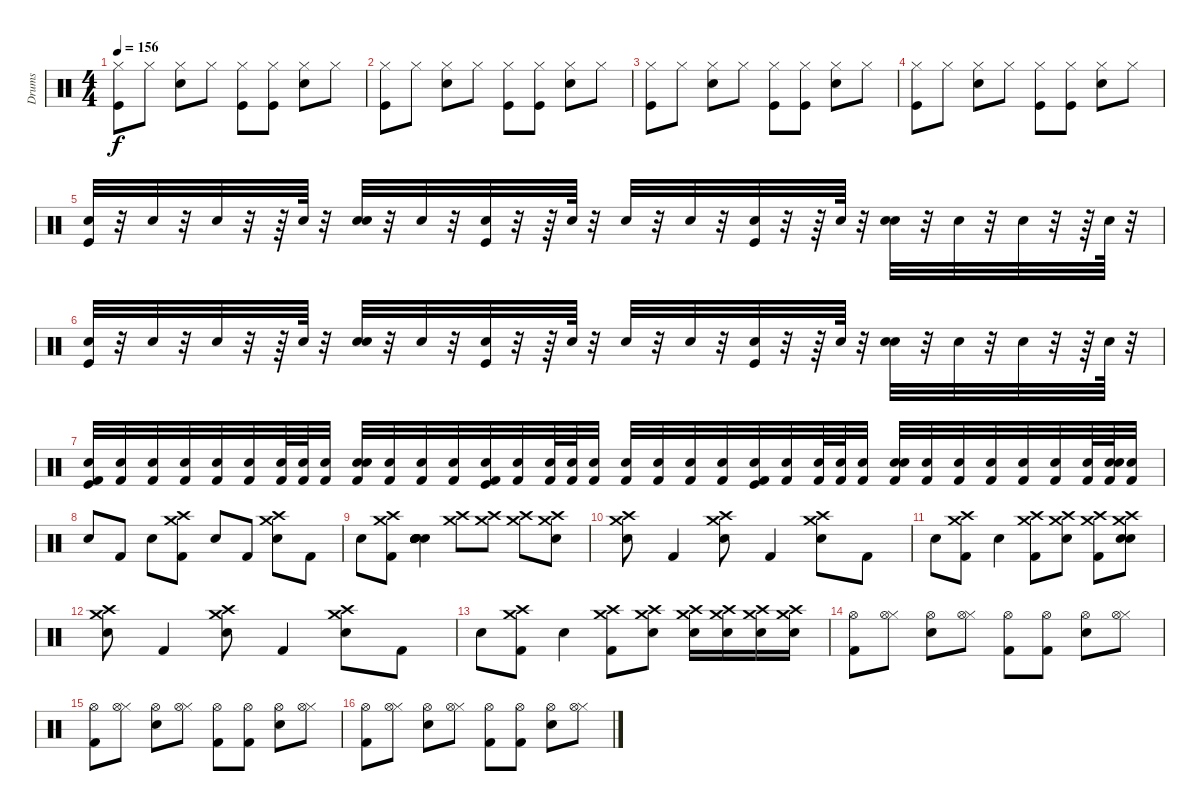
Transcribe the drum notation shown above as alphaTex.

\track ("Drums" "Drums") {instrument percussion}
\staff {score}
\articulation defaults
\ts (4 4)
\tempo 156
\clef neutral
\ks c
("Kick (hit)" "Hi-Hat (closed)").8{dy f} "Hi-Hat (closed)".8 ("Snare (hit) 2" "Hi-Hat (closed)").8 "Hi-Hat (closed)".8 ("Kick (hit)" "Hi-Hat (closed)").8 ("Kick (hit)" "Hi-Hat (closed)").8 ("Snare (hit) 2" "Hi-Hat (closed)").8 "Hi-Hat (closed)".8 |
("Kick (hit)" "Hi-Hat (closed)").8 "Hi-Hat (closed)".8 ("Snare (hit) 2" "Hi-Hat (closed)").8 "Hi-Hat (closed)".8 ("Kick (hit)" "Hi-Hat (closed)").8 ("Kick (hit)" "Hi-Hat (closed)").8 ("Snare (hit) 2" "Hi-Hat (closed)").8 "Hi-Hat (closed)".8 |
("Kick (hit)" "Hi-Hat (closed)").8 "Hi-Hat (closed)".8 ("Snare (hit) 2" "Hi-Hat (closed)").8 "Hi-Hat (closed)".8 ("Kick (hit)" "Hi-Hat (closed)").8 ("Kick (hit)" "Hi-Hat (closed)").8 ("Snare (hit) 2" "Hi-Hat (closed)").8 "Hi-Hat (closed)".8 |
("Kick (hit)" "Hi-Hat (closed)").8 "Hi-Hat (closed)".8 ("Snare (hit) 2" "Hi-Hat (closed)").8 "Hi-Hat (closed)".8 ("Kick (hit)" "Hi-Hat (closed)").8 ("Kick (hit)" "Hi-Hat (closed)").8 ("Snare (hit) 2" "Hi-Hat (closed)").8 "Hi-Hat (closed)".8 |
("Kick (hit)" "Electric Snare (hit)").32 r.32 "Electric Snare (hit)".32 r.32 "Electric Snare (hit)".32 r.32 r.64 "Electric Snare (hit)".64 r.32 ("Snare (hit) 2" "Electric Snare (hit)").32 r.32 "Electric Snare (hit)".32 r.32 ("Kick (hit)" "Electric Snare (hit)").32 r.32 r.64 "Electric Snare (hit)".64 r.32 "Electric Snare (hit)".32 r.32 "Electric Snare (hit)".32 r.32 ("Kick (hit)" "Electric Snare (hit)").32 r.32 r.64 "Electric Snare (hit)".64 r.32 ("Snare (hit) 2" "Electric Snare (hit)").32 r.32 "Electric Snare (hit)".32 r.32 "Electric Snare (hit)".32 r.32 r.64 "Electric Snare (hit)".64 r.32 |
("Kick (hit)" "Electric Snare (hit)").32 r.32 "Electric Snare (hit)".32 r.32 "Electric Snare (hit)".32 r.32 r.64 "Electric Snare (hit)".64 r.32 ("Snare (hit) 2" "Electric Snare (hit)").32 r.32 "Electric Snare (hit)".32 r.32 ("Kick (hit)" "Electric Snare (hit)").32 r.32 r.64 "Electric Snare (hit)".64 r.32 "Electric Snare (hit)".32 r.32 "Electric Snare (hit)".32 r.32 ("Kick (hit)" "Electric Snare (hit)").32 r.32 r.64 "Electric Snare (hit)".64 r.32 ("Snare (hit) 2" "Electric Snare (hit)").32 r.32 "Electric Snare (hit)".32 r.32 "Electric Snare (hit)".32 r.32 r.64 "Electric Snare (hit)".64 r.32 |
("Kick (hit)" "Electric Snare (hit)" "Kick (hit) 2").32 ("Electric Snare (hit)" "Kick (hit) 2").32 ("Electric Snare (hit)" "Kick (hit) 2").32 ("Electric Snare (hit)" "Kick (hit) 2").32 ("Electric Snare (hit)" "Kick (hit) 2").32 ("Electric Snare (hit)" "Kick (hit) 2").32 ("Electric Snare (hit)" "Kick (hit) 2").64 ("Electric Snare (hit)" "Kick (hit) 2").64 ("Electric Snare (hit)" "Kick (hit) 2").32 ("Snare (hit) 2" "Electric Snare (hit)" "Kick (hit) 2").32 ("Electric Snare (hit)" "Kick (hit) 2").32 ("Electric Snare (hit)" "Kick (hit) 2").32 ("Electric Snare (hit)" "Kick (hit) 2").32 ("Kick (hit)" "Electric Snare (hit)" "Kick (hit) 2").32 ("Electric Snare (hit)" "Kick (hit) 2").32 ("Electric Snare (hit)" "Kick (hit) 2").64 ("Electric Snare (hit)" "Kick (hit) 2").64 ("Electric Snare (hit)" "Kick (hit) 2").32 ("Electric Snare (hit)" "Kick (hit) 2").32 ("Electric Snare (hit)" "Kick (hit) 2").32 ("Electric Snare (hit)" "Kick (hit) 2").32 ("Electric Snare (hit)" "Kick (hit) 2").32 ("Kick (hit)" "Electric Snare (hit)" "Kick (hit) 2").32 ("Electric Snare (hit)" "Kick (hit) 2").32 ("Electric Snare (hit)" "Kick (hit) 2").64 ("Electric Snare (hit)" "Kick (hit) 2").64 ("Electric Snare (hit)" "Kick (hit) 2").32 ("Snare (hit) 2" "Electric Snare (hit)" "Kick (hit) 2").32 ("Electric Snare (hit)" "Kick (hit) 2").32 ("Electric Snare (hit)" "Kick (hit) 2").32 ("Electric Snare (hit)" "Kick (hit) 2").32 ("Electric Snare (hit)" "Kick (hit) 2").32 ("Electric Snare (hit)" "Kick (hit) 2").32 ("Electric Snare (hit)" "Kick (hit) 2").64 ("Electric Snare (hit)" "Electric Snare (hit)" "Kick (hit) 2").64 ("Electric Snare (hit)" "Kick (hit) 2").32 |
"Electric Snare (hit)".8 "Kick (hit) 2".8 "Electric Snare (hit)".8 ("Crash high (hit)" "Crash medium (hit)" "Kick (hit) 2").8 "Electric Snare (hit)".8 "Kick (hit) 2".8 ("Crash high (hit)" "Crash medium (hit)" "Electric Snare (hit)").8 "Kick (hit) 2".8 |
"Electric Snare (hit)".8 ("Crash high (hit)" "Crash medium (hit)" "Kick (hit) 2").8 ("Electric Snare (hit)" "Electric Snare (hit)" "Electric Snare (hit)" "Electric Snare (hit)" "Electric Snare (hit)" "Electric Snare (hit)").4 ("Crash high (hit)" "Crash medium (hit)").8 ("Crash high (hit)" "Crash medium (hit)").8 ("Crash high (hit)" "Crash medium (hit)").8 ("Crash high (hit)" "Crash medium (hit)" "Snare (hit) 2").8 |
("Crash high (hit)" "Crash medium (hit)" "Electric Snare (hit)").8 "Kick (hit) 2".4 ("Crash high (hit)" "Crash medium (hit)" "Electric Snare (hit)").8 "Kick (hit) 2".4 ("Crash high (hit)" "Crash medium (hit)" "Electric Snare (hit)").8 "Kick (hit) 2".8 |
"Electric Snare (hit)".8 ("Crash high (hit)" "Crash medium (hit)" "Kick (hit) 2").8 "Electric Snare (hit)".4 ("Crash high (hit)" "Crash medium (hit)" "Kick (hit) 2").8 ("Crash high (hit)" "Crash medium (hit)" "Electric Snare (hit)").8 ("Crash high (hit)" "Crash medium (hit)" "Kick (hit) 2").8 ("Crash high (hit)" "Crash medium (hit)" "Snare (hit) 2" "Electric Snare (hit)").8 |
("Crash high (hit)" "Crash medium (hit)" "Electric Snare (hit)").8 "Kick (hit) 2".4 ("Crash high (hit)" "Crash medium (hit)" "Electric Snare (hit)").8 "Kick (hit) 2".4 ("Crash high (hit)" "Crash medium (hit)" "Electric Snare (hit)").8 "Kick (hit) 2".8 |
"Electric Snare (hit)".8 ("Crash high (hit)" "Crash medium (hit)" "Kick (hit) 2").8 "Electric Snare (hit)".4 ("Crash high (hit)" "Crash medium (hit)" "Kick (hit) 2").8 ("Crash high (hit)" "Crash medium (hit)" "Electric Snare (hit)").8 ("Crash high (hit)" "Crash medium (hit)" "Electric Snare (hit)").16 ("Crash high (hit)" "Crash medium (hit)" "Electric Snare (hit)").16 ("Crash high (hit)" "Crash medium (hit)" "Electric Snare (hit)").16 ("Crash high (hit)" "Crash medium (hit)" "Electric Snare (hit)").16 |
("Kick (hit) 2" "Hi-Hat (open)").8 ("Hi-Hat (closed)" "Hi-Hat (open)").8 ("Electric Snare (hit)" "Hi-Hat (open)").8 ("Hi-Hat (closed)" "Hi-Hat (open)").8 ("Kick (hit) 2" "Hi-Hat (open)").8 ("Kick (hit) 2" "Hi-Hat (open)").8 ("Electric Snare (hit)" "Hi-Hat (open)").8 ("Hi-Hat (closed)" "Hi-Hat (open)").8 |
("Kick (hit) 2" "Hi-Hat (open)").8 ("Hi-Hat (closed)" "Hi-Hat (open)").8 ("Electric Snare (hit)" "Hi-Hat (open)").8 ("Hi-Hat (closed)" "Hi-Hat (open)").8 ("Kick (hit) 2" "Hi-Hat (open)").8 ("Kick (hit) 2" "Hi-Hat (open)").8 ("Electric Snare (hit)" "Hi-Hat (open)").8 ("Hi-Hat (closed)" "Hi-Hat (open)").8 |
("Kick (hit) 2" "Hi-Hat (open)").8 ("Hi-Hat (closed)" "Hi-Hat (open)").8 ("Electric Snare (hit)" "Hi-Hat (open)").8 ("Hi-Hat (closed)" "Hi-Hat (open)").8 ("Kick (hit) 2" "Hi-Hat (open)").8 ("Kick (hit) 2" "Hi-Hat (open)").8 ("Electric Snare (hit)" "Hi-Hat (open)").8 ("Hi-Hat (closed)" "Hi-Hat (open)").8
